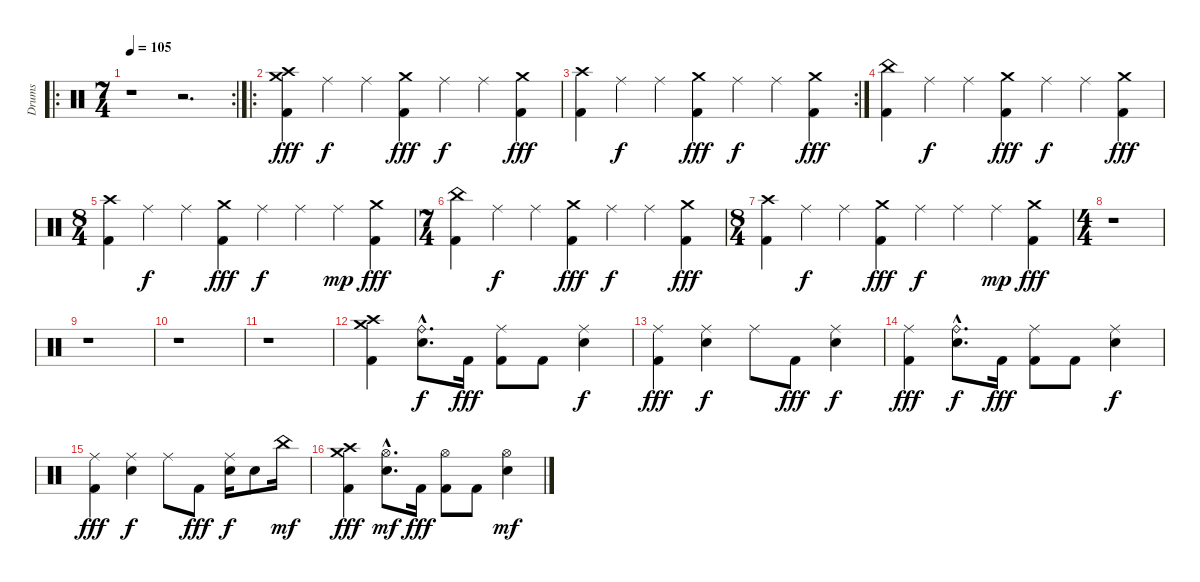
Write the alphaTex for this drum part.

\track ("Drums" "Drums") {instrument percussion}
\staff {score}
\articulation defaults
\ro
\rc 2
\ts (7 4)
\tempo 105
\clef neutral
\ks c
r.1{dy fff} r.2{d} |
\ro
("Crash medium (hit)" "Crash high (hit)" "Kick (hit) 2").4 "Ride (middle)".4{dy f} "Ride (middle)".4 ("Crash medium (hit)" "Kick (hit) 2").4{dy fff} "Ride (middle)".4{dy f} "Ride (middle)".4 ("Crash medium (hit)" "Kick (hit) 2").4{dy fff} |
\rc 2
("Crash high (hit)" "Kick (hit) 2").4 "Ride (middle)".4{dy f} "Ride (middle)".4 ("Crash medium (hit)" "Kick (hit) 2").4{dy fff} "Ride (middle)".4{dy f} "Ride (middle)".4 ("Crash medium (hit)" "Kick (hit) 2").4{dy fff} |
("China (hit)" "Kick (hit) 2").4 "Ride (middle)".4{dy f} "Ride (middle)".4 ("Crash medium (hit)" "Kick (hit) 2").4{dy fff} "Ride (middle)".4{dy f} "Ride (middle)".4 ("Crash medium (hit)" "Kick (hit) 2").4{dy fff} |
\ts (8 4)
("Crash high (hit)" "Kick (hit) 2").4 "Ride (middle)".4{dy f} "Ride (middle)".4 ("Crash medium (hit)" "Kick (hit) 2").4{dy fff} "Ride (middle)".4{dy f} "Ride (middle)".4 "Ride (middle)".4{dy mp} ("Crash medium (hit)" "Kick (hit) 2").4{dy fff} |
\ts (7 4)
("China (hit)" "Kick (hit) 2").4 "Ride (middle)".4{dy f} "Ride (middle)".4 ("Crash medium (hit)" "Kick (hit) 2").4{dy fff} "Ride (middle)".4{dy f} "Ride (middle)".4 ("Crash medium (hit)" "Kick (hit) 2").4{dy fff} |
\ts (8 4)
("Crash high (hit)" "Kick (hit) 2").4 "Ride (middle)".4{dy f} "Ride (middle)".4 ("Crash medium (hit)" "Kick (hit) 2").4{dy fff} "Ride (middle)".4{dy f} "Ride (middle)".4 "Ride (middle)".4{dy mp} ("Crash medium (hit)" "Kick (hit) 2").4{dy fff} |
\ts (4 4)
r.1 |
r.1 |
r.1 |
r.1 |
("Crash medium (hit)" "Crash high (hit)" "Kick (hit) 2").4 ("Ride (bell)"{hac} "Electric Snare (hit)"{hac}).8{d dy f} "Kick (hit) 2".16{dy fff} ("Ride (middle)" "Kick (hit) 2").8 "Kick (hit) 2".8 ("Ride (middle)" "Electric Snare (hit)").4{dy f} |
("Ride (middle)" "Kick (hit) 2").4{dy fff} ("Ride (middle)" "Electric Snare (hit)").4{dy f} "Ride (middle)".8 "Kick (hit) 2".8{dy fff} ("Ride (middle)" "Electric Snare (hit)").4{dy f} |
("Ride (middle)" "Kick (hit) 2").4{dy fff} ("Ride (bell)"{hac} "Electric Snare (hit)"{hac}).8{d dy f} "Kick (hit) 2".16{dy fff} ("Ride (middle)" "Kick (hit) 2").8 "Kick (hit) 2".8 ("Ride (middle)" "Electric Snare (hit)").4{dy f} |
("Ride (middle)" "Kick (hit) 2").4{dy fff} ("Ride (middle)" "Electric Snare (hit)").4{dy f} "Ride (middle)".8 "Kick (hit) 2".8{dy fff} ("Ride (middle)" "Electric Snare (hit)").16{dy f} "Electric Snare (hit)".8 "China (hit)".16{dy mf} |
("Crash medium (hit)" "Crash high (hit)" "Kick (hit) 2").4{dy fff} ("Hi-Hat (open)"{hac} "Electric Snare (hit)"{hac}).8{d dy mf} "Kick (hit) 2".16{dy fff} ("Hi-Hat (open)" "Kick (hit) 2").8 "Kick (hit) 2".8 ("Hi-Hat (open)" "Electric Snare (hit)").4{dy mf}
